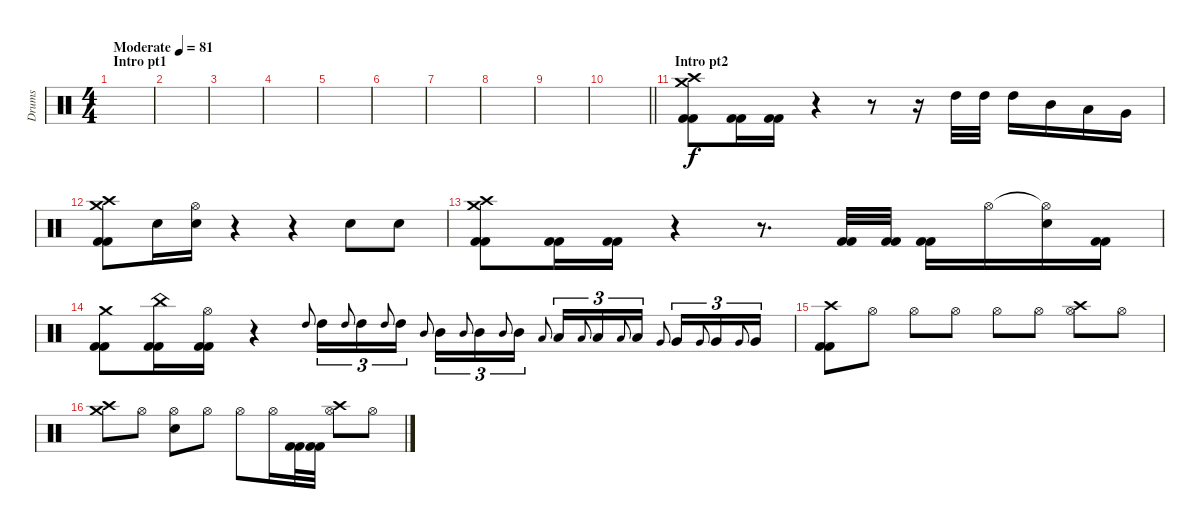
\track ("Drums" "Drums") {instrument percussion}
\staff {score}
\articulation defaults
\ts (4 4)
\section ("" "Intro pt1")
\tempo (81 "Moderate")
\clef neutral
\ks c
|
|
|
|
|
|
|
|
|
\barLineRight lightlight
|
\section ("" "Intro pt2")
("Crash high (hit)" "Crash medium (hit)" "Kick (hit) 2" "Kick (hit) 2").8 ("Kick (hit) 2" "Kick (hit) 2").16 ("Kick (hit) 2" "Kick (hit) 2").16 r.4 r.8 r.16 "High Tom (hit)".32 "High Tom (hit)".32 "High Tom (hit)".16 "Mid Tom (hit)".16 "Low Tom (hit)".16 "Very Low Tom (hit)".16 |
("Crash high (hit)" "Crash medium (hit)" "Kick (hit) 2" "Kick (hit) 2").8 "Electric Snare (hit)".16 ("Hi-Hat (open)" "Electric Snare (hit)").16 r.4 r.4 "Electric Snare (hit)".8 "Electric Snare (hit)".8 |
("Crash high (hit)" "Crash medium (hit)" "Kick (hit) 2" "Kick (hit) 2").8 ("Kick (hit) 2" "Kick (hit) 2").16 ("Kick (hit) 2" "Kick (hit) 2").16 r.4 r.8{d} ("Kick (hit) 2" "Kick (hit) 2").32 ("Kick (hit) 2" "Kick (hit) 2").32 ("Kick (hit) 2" "Kick (hit) 2").16 "Hi-Hat (open)".16 ("Hi-Hat (open)"{t} "Electric Snare (hit)").16 ("Kick (hit) 2" "Kick (hit) 2").16 |
("Crash medium (hit)" "Kick (hit) 2" "Kick (hit) 2").8 ("China (hit)" "Kick (hit) 2" "Kick (hit) 2").16 ("Hi-Hat (open)" "Kick (hit) 2" "Kick (hit) 2").16 r.4 "High Tom (hit)".8{gr onbeat} "High Tom (hit)".16{tu (3 2)} "High Tom (hit)".8{gr onbeat} "High Tom (hit)".16{tu (3 2)} "High Tom (hit)".8{gr onbeat} "High Tom (hit)".16{tu (3 2)} "Mid Tom (hit)".8{gr onbeat beam splitsecondary} "Mid Tom (hit)".16{tu (3 2)} "Mid Tom (hit)".8{gr onbeat} "Mid Tom (hit)".16{tu (3 2)} "Mid Tom (hit)".8{gr onbeat} "Mid Tom (hit)".16{tu (3 2)} "Low Tom (hit)".8{gr onbeat} "Low Tom (hit)".16{tu (3 2)} "Low Tom (hit)".8{gr onbeat} "Low Tom (hit)".16{tu (3 2)} "Low Tom (hit)".8{gr onbeat} "Low Tom (hit)".16{tu (3 2)} "Very Low Tom (hit)".8{gr onbeat beam splitsecondary} "Very Low Tom (hit)".16{tu (3 2)} "Very Low Tom (hit)".8{gr onbeat} "Very Low Tom (hit)".16{tu (3 2)} "Very Low Tom (hit)".8{gr onbeat} "Very Low Tom (hit)".16{tu (3 2)} |
("Crash high (hit)" "Kick (hit) 2" "Kick (hit) 2").8 "Hi-Hat (open)".8 "Hi-Hat (open)".8 "Hi-Hat (open)".8 "Hi-Hat (open)".8 "Hi-Hat (open)".8 ("Crash high (hit)" "Hi-Hat (open)").8 "Hi-Hat (open)".8 |
("Crash medium (hit)" "Crash high (hit)").8 "Hi-Hat (open)".8 ("Hi-Hat (open)" "Electric Snare (hit)").8 "Hi-Hat (open)".8 "Hi-Hat (open)".8 "Hi-Hat (open)".16 ("Kick (hit) 2" "Kick (hit) 2").32 ("Kick (hit) 2" "Kick (hit) 2").32 ("Crash high (hit)" "Hi-Hat (open)").8 "Hi-Hat (open)".8
